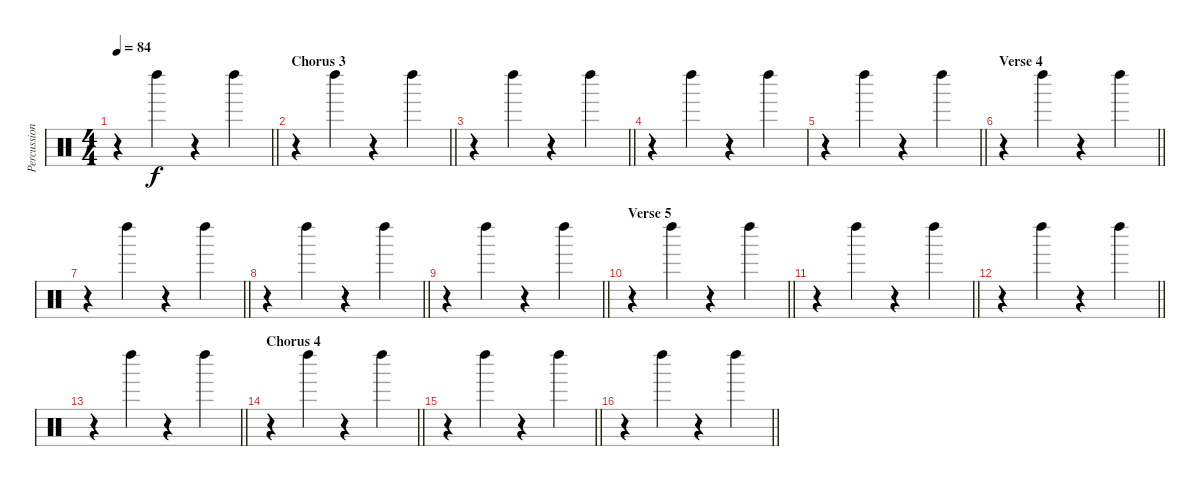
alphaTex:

\track ("Percussion" "Percussion") {instrument percussion}
\staff {score}
\articulation defaults
\ts (4 4)
\tempo 84
\clef neutral
\barLineRight lightlight
\ks c
r.4{dy f} "Left Maraca (hit)".4 r.4 "Left Maraca (hit)".4 |
\section ("" "Chorus 3")
\barLineRight lightlight
r.4 "Left Maraca (hit)".4 r.4 "Left Maraca (hit)".4 |
\barLineRight lightlight
r.4 "Left Maraca (hit)".4 r.4 "Left Maraca (hit)".4 |
r.4 "Left Maraca (hit)".4 r.4 "Left Maraca (hit)".4 |
\barLineRight lightlight
r.4 "Left Maraca (hit)".4 r.4 "Left Maraca (hit)".4 |
\section ("" "Verse 4")
\barLineRight lightlight
r.4 "Left Maraca (hit)".4 r.4 "Left Maraca (hit)".4 |
\barLineRight lightlight
r.4 "Left Maraca (hit)".4 r.4 "Left Maraca (hit)".4 |
\barLineRight lightlight
r.4 "Left Maraca (hit)".4 r.4 "Left Maraca (hit)".4 |
\barLineRight lightlight
r.4 "Left Maraca (hit)".4 r.4 "Left Maraca (hit)".4 |
\section ("" "Verse 5")
\barLineRight lightlight
r.4 "Left Maraca (hit)".4 r.4 "Left Maraca (hit)".4 |
\barLineRight lightlight
r.4 "Left Maraca (hit)".4 r.4 "Left Maraca (hit)".4 |
\barLineRight lightlight
r.4 "Left Maraca (hit)".4 r.4 "Left Maraca (hit)".4 |
\barLineRight lightlight
r.4 "Left Maraca (hit)".4 r.4 "Left Maraca (hit)".4 |
\section ("" "Chorus 4")
\barLineRight lightlight
r.4 "Left Maraca (hit)".4 r.4 "Left Maraca (hit)".4 |
\barLineRight lightlight
r.4 "Left Maraca (hit)".4 r.4 "Left Maraca (hit)".4 |
\barLineRight lightlight
r.4 "Left Maraca (hit)".4 r.4 "Left Maraca (hit)".4
